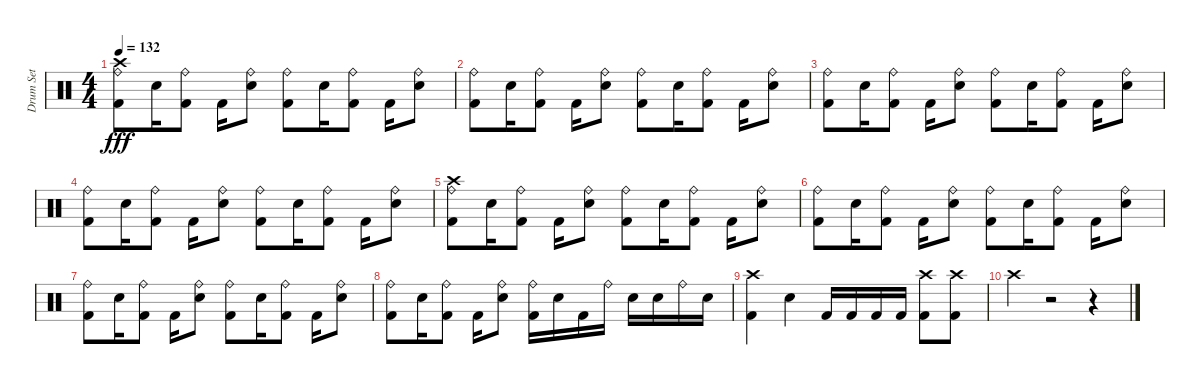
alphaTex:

\track ("Drum Set" "Drum Set") {instrument percussion}
\staff {score}
\articulation defaults
\ts (4 4)
\tempo 132
\clef neutral
\ks c
("Kick (hit) 2" "Ride (bell)" "Crash high (hit)").8{dy fff} "Electric Snare (hit)".16 ("Ride (bell)" "Kick (hit) 2").8 "Kick (hit) 2".16 ("Electric Snare (hit)" "Ride (bell)").8 ("Kick (hit) 2" "Ride (bell)").8 "Electric Snare (hit)".16 ("Ride (bell)" "Kick (hit) 2").8 "Kick (hit) 2".16 ("Electric Snare (hit)" "Ride (bell)").8 |
("Kick (hit) 2" "Ride (bell)").8 "Electric Snare (hit)".16 ("Ride (bell)" "Kick (hit) 2").8 "Kick (hit) 2".16 ("Electric Snare (hit)" "Ride (bell)").8 ("Kick (hit) 2" "Ride (bell)").8 "Electric Snare (hit)".16 ("Ride (bell)" "Kick (hit) 2").8 "Kick (hit) 2".16 ("Electric Snare (hit)" "Ride (bell)").8 |
("Kick (hit) 2" "Ride (bell)").8 "Electric Snare (hit)".16 ("Ride (bell)" "Kick (hit) 2").8 "Kick (hit) 2".16 ("Electric Snare (hit)" "Ride (bell)").8 ("Kick (hit) 2" "Ride (bell)").8 "Electric Snare (hit)".16 ("Ride (bell)" "Kick (hit) 2").8 "Kick (hit) 2".16 ("Electric Snare (hit)" "Ride (bell)").8 |
("Kick (hit) 2" "Ride (bell)").8 "Electric Snare (hit)".16 ("Ride (bell)" "Kick (hit) 2").8 "Kick (hit) 2".16 ("Electric Snare (hit)" "Ride (bell)").8 ("Kick (hit) 2" "Ride (bell)").8 "Electric Snare (hit)".16 ("Ride (bell)" "Kick (hit) 2").8 "Kick (hit) 2".16 ("Electric Snare (hit)" "Ride (bell)").8 |
("Kick (hit) 2" "Ride (bell)" "Crash high (hit)").8 "Electric Snare (hit)".16 ("Ride (bell)" "Kick (hit) 2").8 "Kick (hit) 2".16 ("Electric Snare (hit)" "Ride (bell)").8 ("Kick (hit) 2" "Ride (bell)").8 "Electric Snare (hit)".16 ("Ride (bell)" "Kick (hit) 2").8 "Kick (hit) 2".16 ("Electric Snare (hit)" "Ride (bell)").8 |
("Kick (hit) 2" "Ride (bell)").8 "Electric Snare (hit)".16 ("Ride (bell)" "Kick (hit) 2").8 "Kick (hit) 2".16 ("Electric Snare (hit)" "Ride (bell)").8 ("Kick (hit) 2" "Ride (bell)").8 "Electric Snare (hit)".16 ("Ride (bell)" "Kick (hit) 2").8 "Kick (hit) 2".16 ("Electric Snare (hit)" "Ride (bell)").8 |
("Kick (hit) 2" "Ride (bell)").8 "Electric Snare (hit)".16 ("Ride (bell)" "Kick (hit) 2").8 "Kick (hit) 2".16 ("Electric Snare (hit)" "Ride (bell)").8 ("Kick (hit) 2" "Ride (bell)").8 "Electric Snare (hit)".16 ("Ride (bell)" "Kick (hit) 2").8 "Kick (hit) 2".16 ("Electric Snare (hit)" "Ride (bell)").8 |
("Kick (hit) 2" "Ride (bell)").8 "Electric Snare (hit)".16 ("Ride (bell)" "Kick (hit) 2").8 "Kick (hit) 2".16 ("Electric Snare (hit)" "Ride (bell)").8 ("Kick (hit) 2" "Ride (bell)").16 "Electric Snare (hit)".16 "Kick (hit) 2".16 "Ride (bell)".16 "Electric Snare (hit)".16 "Electric Snare (hit)".16 "Ride (bell)".16 "Electric Snare (hit)".16 |
("Kick (hit) 2" "Crash high (hit)").4 "Electric Snare (hit)".4 "Kick (hit) 2".16 "Kick (hit) 2".16 "Kick (hit) 2".16 "Kick (hit) 2".16 ("Kick (hit) 2" "Crash high (hit)").8 ("Kick (hit) 2" "Crash high (hit)").8 |
"Crash high (hit)".4 r.2 r.4
